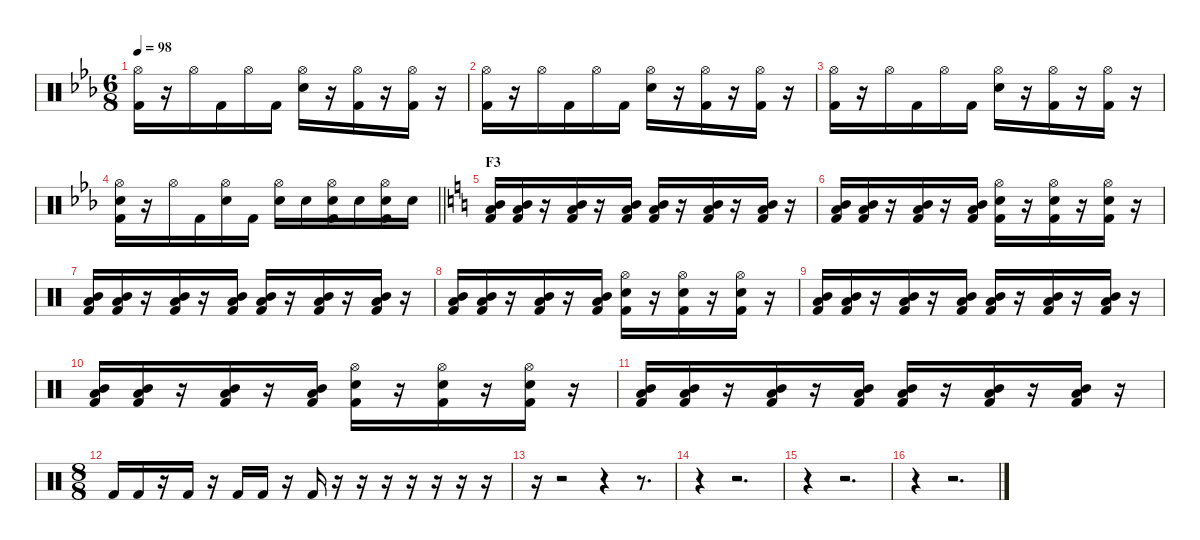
\defaultSystemsLayout 4
\hideDynamics
\bracketExtendMode nobrackets
\singleTrackTrackNamePolicy hidden
\multiTrackTrackNamePolicy hidden
\firstSystemTrackNameMode fullname
\firstSystemTrackNameOrientation horizontal
\otherSystemsTrackNameOrientation horizontal
\track ("Gene Hogland" "drm.") {instrument percussion}
\staff {score}
\articulation defaults
\ts (6 8)
\tempo 98
\clef neutral
\ks eb
("Hi-Hat (open)"{acc forcenatural} "Kick (hit) 2"{acc forcenatural}).16{dy f beam Down} r.16{beam Down} "Hi-Hat (open)"{acc forcenatural}.16{beam Down} "Kick (hit) 2"{acc forcenatural}.16{beam Down} "Hi-Hat (open)"{acc forcenatural}.16{beam Down} "Kick (hit) 2"{acc forcenatural}.16{beam Down} ("Hi-Hat (open)"{acc forcenatural} "Snare (hit) 2"{acc forcenatural}).16{beam Down} r.16{beam Down} ("Hi-Hat (open)"{acc forcenatural} "Kick (hit) 2"{acc forcenatural}).16{beam Down} r.16{beam Down} ("Hi-Hat (open)"{acc forcenatural} "Kick (hit) 2"{acc forcenatural}).16{beam Down} r.16{beam Down} |
("Hi-Hat (open)"{acc forcenatural} "Kick (hit) 2"{acc forcenatural}).16{beam Down} r.16{beam Down} "Hi-Hat (open)"{acc forcenatural}.16{beam Down} "Kick (hit) 2"{acc forcenatural}.16{beam Down} "Hi-Hat (open)"{acc forcenatural}.16{beam Down} "Kick (hit) 2"{acc forcenatural}.16{beam Down} ("Hi-Hat (open)"{acc forcenatural} "Snare (hit) 2"{acc forcenatural}).16{beam Down} r.16{beam Down} ("Hi-Hat (open)"{acc forcenatural} "Kick (hit) 2"{acc forcenatural}).16{beam Down} r.16{beam Down} ("Hi-Hat (open)"{acc forcenatural} "Kick (hit) 2"{acc forcenatural}).16{beam Down} r.16{beam Down} |
("Hi-Hat (open)"{acc forcenatural} "Kick (hit) 2"{acc forcenatural}).16{beam Down} r.16{beam Down} "Hi-Hat (open)"{acc forcenatural}.16{beam Down} "Kick (hit) 2"{acc forcenatural}.16{beam Down} "Hi-Hat (open)"{acc forcenatural}.16{beam Down} "Kick (hit) 2"{acc forcenatural}.16{beam Down} ("Hi-Hat (open)"{acc forcenatural} "Snare (hit) 2"{acc forcenatural}).16{beam Down} r.16{beam Down} ("Hi-Hat (open)"{acc forcenatural} "Kick (hit) 2"{acc forcenatural}).16{beam Down} r.16{beam Down} ("Hi-Hat (open)"{acc forcenatural} "Kick (hit) 2"{acc forcenatural}).16{beam Down} r.16{beam Down} |
\barLineRight lightlight
("Hi-Hat (open)"{acc forcenatural} "Snare (hit) 2"{acc forcenatural} "Kick (hit) 2"{acc forcenatural}).16{beam Down} r.16{beam Down} "Hi-Hat (open)"{acc forcenatural}.16{beam Down} "Kick (hit) 2"{acc forcenatural}.16{beam Down} ("Hi-Hat (open)"{acc forcenatural} "Snare (hit) 2"{acc forcenatural}).16{beam Down} "Kick (hit) 2"{acc forcenatural}.16{beam Down} ("Hi-Hat (open)"{acc forcenatural} "Snare (hit) 2"{acc forcenatural}).16{beam Down} "Snare (hit) 2"{acc forcenatural}.16{beam Down} ("Hi-Hat (open)"{acc forcenatural} "Snare (hit) 2"{acc forcenatural} "Kick (hit) 2"{acc forcenatural}).16{beam Down} "Snare (hit) 2"{acc forcenatural}.16{beam Down} ("Hi-Hat (open)"{acc forcenatural} "Snare (hit) 2"{acc forcenatural} "Kick (hit) 2"{acc forcenatural}).16{beam Down} "Snare (hit) 2"{acc forcenatural}.16{beam Down} |
\section ("" "F3")
\ks c
("Mid Tom (hit)" "Low Tom (hit)" "Kick (hit) 2").16{beam Up} ("Mid Tom (hit)" "Low Tom (hit)" "Kick (hit) 2").16{beam Up} r.16{beam Up} ("Mid Tom (hit)" "Low Tom (hit)" "Kick (hit) 2").16{beam Up} r.16{beam Up} ("Mid Tom (hit)" "Low Tom (hit)" "Kick (hit) 2").16{beam Up} ("Mid Tom (hit)" "Low Tom (hit)" "Kick (hit) 2").16{beam Up} r.16{beam Up} ("Mid Tom (hit)" "Low Tom (hit)" "Kick (hit) 2").16{beam Up} r.16{beam Up} ("Mid Tom (hit)" "Low Tom (hit)" "Kick (hit) 2").16{beam Up} r.16{beam Up} |
("Mid Tom (hit)" "Low Tom (hit)" "Kick (hit) 2").16{beam Up} ("Mid Tom (hit)" "Low Tom (hit)" "Kick (hit) 2").16{beam Up} r.16{beam Up} ("Mid Tom (hit)" "Low Tom (hit)" "Kick (hit) 2").16{beam Up} r.16{beam Up} ("Mid Tom (hit)" "Low Tom (hit)" "Kick (hit) 2").16{beam Down} ("Hi-Hat (open)" "Snare (hit) 2" "Kick (hit) 2").16{beam Down} r.16{beam Down} ("Hi-Hat (open)" "Snare (hit) 2" "Kick (hit) 2").16{beam Down} r.16{beam Down} ("Hi-Hat (open)" "Snare (hit) 2" "Kick (hit) 2").16{beam Down} r.16{beam Down} |
("Mid Tom (hit)" "Low Tom (hit)" "Kick (hit) 2").16{beam Up} ("Mid Tom (hit)" "Low Tom (hit)" "Kick (hit) 2").16{beam Up} r.16{beam Up} ("Mid Tom (hit)" "Low Tom (hit)" "Kick (hit) 2").16{beam Up} r.16{beam Up} ("Mid Tom (hit)" "Low Tom (hit)" "Kick (hit) 2").16{beam Up} ("Mid Tom (hit)" "Low Tom (hit)" "Kick (hit) 2").16{beam Up} r.16{beam Up} ("Mid Tom (hit)" "Low Tom (hit)" "Kick (hit) 2").16{beam Up} r.16{beam Up} ("Mid Tom (hit)" "Low Tom (hit)" "Kick (hit) 2").16{beam Up} r.16{beam Up} |
("Mid Tom (hit)" "Low Tom (hit)" "Kick (hit) 2").16{beam Up} ("Mid Tom (hit)" "Low Tom (hit)" "Kick (hit) 2").16{beam Up} r.16{beam Up} ("Mid Tom (hit)" "Low Tom (hit)" "Kick (hit) 2").16{beam Up} r.16{beam Up} ("Mid Tom (hit)" "Low Tom (hit)" "Kick (hit) 2").16{beam Down} ("Hi-Hat (open)" "Snare (hit) 2" "Kick (hit) 2").16{beam Down} r.16{beam Down} ("Hi-Hat (open)" "Snare (hit) 2" "Kick (hit) 2").16{beam Down} r.16{beam Down} ("Hi-Hat (open)" "Snare (hit) 2" "Kick (hit) 2").16{beam Down} r.16{beam Down} |
("Mid Tom (hit)" "Low Tom (hit)" "Kick (hit) 2").16{beam Up} ("Mid Tom (hit)" "Low Tom (hit)" "Kick (hit) 2").16{beam Up} r.16{beam Up} ("Mid Tom (hit)" "Low Tom (hit)" "Kick (hit) 2").16{beam Up} r.16{beam Up} ("Mid Tom (hit)" "Low Tom (hit)" "Kick (hit) 2").16{beam Up} ("Mid Tom (hit)" "Low Tom (hit)" "Kick (hit) 2").16{beam Up} r.16{beam Up} ("Mid Tom (hit)" "Low Tom (hit)" "Kick (hit) 2").16{beam Up} r.16{beam Up} ("Mid Tom (hit)" "Low Tom (hit)" "Kick (hit) 2").16{beam Up} r.16{beam Up} |
("Mid Tom (hit)" "Low Tom (hit)" "Kick (hit) 2").16{beam Up} ("Mid Tom (hit)" "Low Tom (hit)" "Kick (hit) 2").16{beam Up} r.16{beam Up} ("Mid Tom (hit)" "Low Tom (hit)" "Kick (hit) 2").16{beam Up} r.16{beam Up} ("Mid Tom (hit)" "Low Tom (hit)" "Kick (hit) 2").16{beam Down} ("Hi-Hat (open)" "Snare (hit) 2" "Kick (hit) 2").16{beam Down} r.16{beam Down} ("Hi-Hat (open)" "Snare (hit) 2" "Kick (hit) 2").16{beam Down} r.16{beam Down} ("Hi-Hat (open)" "Snare (hit) 2" "Kick (hit) 2").16{beam Down} r.16{beam Down} |
("Mid Tom (hit)" "Low Tom (hit)" "Kick (hit) 2").16{beam Up} ("Mid Tom (hit)" "Low Tom (hit)" "Kick (hit) 2").16{beam Up} r.16{beam Up} ("Mid Tom (hit)" "Low Tom (hit)" "Kick (hit) 2").16{beam Up} r.16{beam Up} ("Mid Tom (hit)" "Low Tom (hit)" "Kick (hit) 2").16{beam Up} ("Mid Tom (hit)" "Low Tom (hit)" "Kick (hit) 2").16{beam Up} r.16{beam Up} ("Mid Tom (hit)" "Low Tom (hit)" "Kick (hit) 2").16{beam Up} r.16{beam Up} ("Mid Tom (hit)" "Low Tom (hit)" "Kick (hit) 2").16{beam Up} r.16{beam Up} |
\ts (8 8)
\beaming (8 2 2 2 2)
"Kick (hit) 2".16{beam Up} "Kick (hit) 2".16{beam Up} r.16{beam Up} "Kick (hit) 2".16{beam Up} r.16{beam Up} "Kick (hit) 2".16{beam Up} "Kick (hit) 2".16{beam Up} r.16{beam Up} "Kick (hit) 2".16{beam Up} r.16{beam Up} r.16{beam Up} r.16{beam Up} r.16{beam Up} r.16{beam Up} r.16{beam Up} r.16{beam Up} |
r.16{beam Down} r.2{beam Down} r.4{beam Down} r.8{d beam Down} |
r.4{beam Down} r.2{d beam Down} |
r.4{beam Down} r.2{d beam Down} |
r.4{beam Down} r.2{d beam Down}
